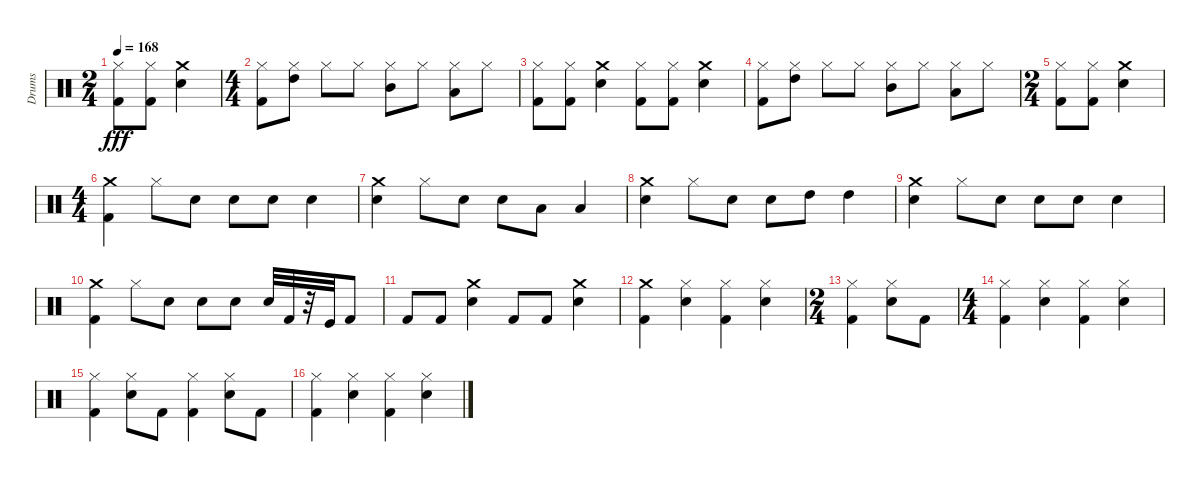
\track ("Drums" "Drums") {instrument percussion}
\staff {score}
\articulation defaults
\ts (2 4)
\tempo 168
\clef neutral
\ks c
("Kick (hit) 2" "Hi-Hat (closed)").8{dy fff} ("Kick (hit) 2" "Hi-Hat (closed)").8 ("Snare (hit) 2" "Crash medium (hit)").4 |
\ts (4 4)
("Hi-Hat (closed)" "Kick (hit) 2").8 ("High Tom (hit)" "Hi-Hat (closed)").8{balance 16} "Hi-Hat (closed)".8{balance 8} "Hi-Hat (closed)".8 ("Mid Tom (hit)" "Hi-Hat (closed)").8 "Hi-Hat (closed)".8 ("Hi-Hat (closed)" "Low Tom (hit)").8{balance 0} "Hi-Hat (closed)".8{balance 8} |
("Hi-Hat (closed)" "Kick (hit) 2").8 ("Hi-Hat (closed)" "Kick (hit) 2").8 ("Snare (hit) 2" "Crash medium (hit)").4 ("Kick (hit) 2" "Hi-Hat (closed)").8 ("Kick (hit) 2" "Hi-Hat (closed)").8 ("Crash medium (hit)" "Snare (hit) 2").4 |
("Hi-Hat (closed)" "Kick (hit) 2").8 ("High Tom (hit)" "Hi-Hat (closed)").8{balance 16} "Hi-Hat (closed)".8{balance 8} "Hi-Hat (closed)".8 ("Mid Tom (hit)" "Hi-Hat (closed)").8 "Hi-Hat (closed)".8 ("Hi-Hat (closed)" "Low Tom (hit)").8{balance 0} "Hi-Hat (closed)".8{balance 8} |
\ts (2 4)
("Hi-Hat (closed)" "Kick (hit) 2").8 ("Hi-Hat (closed)" "Kick (hit) 2").8 ("Crash medium (hit)" "Snare (hit) 2").4 |
\ts (4 4)
("Kick (hit) 2" "Crash medium (hit)").4 "Hi-Hat (closed)".8 "Snare (hit) 2".8 "Snare (hit) 2".8 "Snare (hit) 2".8 "Snare (hit) 2".4 |
("Snare (hit) 2" "Crash medium (hit)").4 "Hi-Hat (closed)".8 "Snare (hit) 2".8 "Snare (hit) 2".8 "Low Tom (hit)".8 "Low Tom (hit)".4 |
("Snare (hit) 2" "Crash medium (hit)").4 "Hi-Hat (closed)".8 "Snare (hit) 2".8 "Snare (hit) 2".8 "High Tom (hit)".8 "High Tom (hit)".4 |
("Snare (hit) 2" "Crash medium (hit)").4 "Hi-Hat (closed)".8 "Snare (hit) 2".8 "Snare (hit) 2".8 "Snare (hit) 2".8 "Snare (hit) 2".4 |
("Kick (hit) 2" "Crash medium (hit)").4 "Hi-Hat (closed)".8 "Snare (hit) 2".8 "Snare (hit) 2".8 "Snare (hit) 2".8 "Snare (hit) 2".32 "Kick (hit) 2".32 r.32 "Kick (hit)".32 "Kick (hit) 2".8 |
"Kick (hit) 2".8 "Kick (hit) 2".8 ("Snare (hit) 2" "Crash medium (hit)").4 "Kick (hit) 2".8 "Kick (hit) 2".8 ("Crash medium (hit)" "Snare (hit) 2").4 |
("Kick (hit) 2" "Crash medium (hit)").4 ("Hi-Hat (closed)" "Snare (hit) 2").4 ("Hi-Hat (closed)" "Kick (hit) 2").4 ("Snare (hit) 2" "Hi-Hat (closed)").4 |
\ts (2 4)
("Hi-Hat (closed)" "Kick (hit) 2").4 ("Snare (hit) 2" "Hi-Hat (closed)").8 "Kick (hit) 2".8 |
\ts (4 4)
("Kick (hit) 2" "Hi-Hat (closed)").4 ("Snare (hit) 2" "Hi-Hat (closed)").4 ("Kick (hit) 2" "Hi-Hat (closed)").4 ("Snare (hit) 2" "Hi-Hat (closed)").4 |
("Hi-Hat (closed)" "Kick (hit) 2").4 ("Snare (hit) 2" "Hi-Hat (closed)").8 "Kick (hit) 2".8 ("Kick (hit) 2" "Hi-Hat (closed)").4 ("Hi-Hat (closed)" "Snare (hit) 2").8 "Kick (hit) 2".8 |
("Hi-Hat (closed)" "Kick (hit) 2").4 ("Hi-Hat (closed)" "Snare (hit) 2").4 ("Hi-Hat (closed)" "Kick (hit) 2").4 ("Snare (hit) 2" "Hi-Hat (closed)").4
